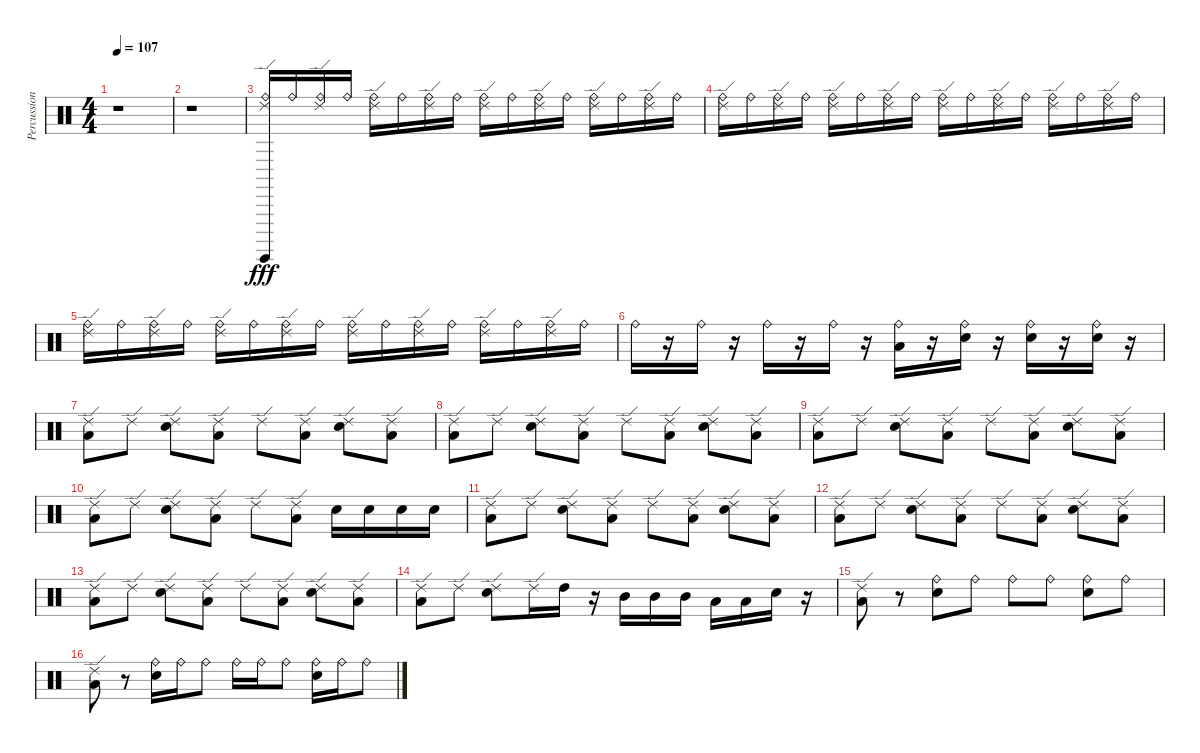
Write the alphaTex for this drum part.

\track ("Percussions" "Percussion") {instrument percussion}
\staff {score}
\articulation defaults
\ts (4 4)
\tempo 107
\clef neutral
\ks c
r.1{dy fff} |
r.1 |
("Surdo (hit)" "Ride (edge) 2" "Ride (bell)").16 "Ride (bell)".16 ("Ride (edge) 2" "Ride (bell)").16 "Ride (bell)".16 ("Ride (edge) 2" "Ride (bell)").16 "Ride (bell)".16 ("Ride (edge) 2" "Ride (bell)").16 "Ride (bell)".16 ("Ride (edge) 2" "Ride (bell)").16 "Ride (bell)".16 ("Ride (edge) 2" "Ride (bell)").16 "Ride (bell)".16 ("Ride (edge) 2" "Ride (bell)").16 "Ride (bell)".16 ("Ride (edge) 2" "Ride (bell)").16 "Ride (bell)".16 |
("Ride (edge) 2" "Ride (bell)").16 "Ride (bell)".16 ("Ride (edge) 2" "Ride (bell)").16 "Ride (bell)".16 ("Ride (edge) 2" "Ride (bell)").16 "Ride (bell)".16 ("Ride (edge) 2" "Ride (bell)").16 "Ride (bell)".16 ("Ride (edge) 2" "Ride (bell)").16 "Ride (bell)".16 ("Ride (edge) 2" "Ride (bell)").16 "Ride (bell)".16 ("Ride (edge) 2" "Ride (bell)").16 "Ride (bell)".16 ("Ride (edge) 2" "Ride (bell)").16 "Ride (bell)".16 |
("Ride (edge) 2" "Ride (bell)").16 "Ride (bell)".16 ("Ride (edge) 2" "Ride (bell)").16 "Ride (bell)".16 ("Ride (edge) 2" "Ride (bell)").16 "Ride (bell)".16 ("Ride (edge) 2" "Ride (bell)").16 "Ride (bell)".16 ("Ride (edge) 2" "Ride (bell)").16 "Ride (bell)".16 ("Ride (edge) 2" "Ride (bell)").16 "Ride (bell)".16 ("Ride (edge) 2" "Ride (bell)").16 "Ride (bell)".16 ("Ride (edge) 2" "Ride (bell)").16 "Ride (bell)".16 |
"Ride (bell)".16 r.16 "Ride (bell)".16 r.16 "Ride (bell)".16 r.16 "Ride (bell)".16 r.16 ("Low Floor Tom (hit)" "Ride (bell)").16 r.16 ("Electric Snare (hit)" "Ride (bell)").16 r.16 ("Electric Snare (hit)" "Ride (bell)").16 r.16 ("Electric Snare (hit)" "Ride (bell)").16 r.16 |
("Low Floor Tom (hit)" "Ride (edge) 2").8 "Ride (edge) 2".8 ("Electric Snare (hit)" "Ride (edge) 2").8 ("Low Floor Tom (hit)" "Ride (edge) 2").8 "Ride (edge) 2".8 ("Low Floor Tom (hit)" "Ride (edge) 2").8 ("Snare (hit) 2" "Ride (edge) 2").8 ("Low Floor Tom (hit)" "Ride (edge) 2").8 |
("Low Floor Tom (hit)" "Ride (edge) 2").8 "Ride (edge) 2".8 ("Electric Snare (hit)" "Ride (edge) 2").8 ("Low Floor Tom (hit)" "Ride (edge) 2").8 "Ride (edge) 2".8 ("Low Floor Tom (hit)" "Ride (edge) 2").8 ("Electric Snare (hit)" "Ride (edge) 2").8 ("Low Floor Tom (hit)" "Ride (edge) 2").8 |
("Low Floor Tom (hit)" "Ride (edge) 2").8 "Ride (edge) 2".8 ("Electric Snare (hit)" "Ride (edge) 2").8 ("Low Floor Tom (hit)" "Ride (edge) 2").8 "Ride (edge) 2".8 ("Low Floor Tom (hit)" "Ride (edge) 2").8 ("Electric Snare (hit)" "Ride (edge) 2").8 ("Low Floor Tom (hit)" "Ride (edge) 2").8 |
("Low Floor Tom (hit)" "Ride (edge) 2").8 "Ride (edge) 2".8 ("Electric Snare (hit)" "Ride (edge) 2").8 ("Low Floor Tom (hit)" "Ride (edge) 2").8 "Ride (edge) 2".8 ("Low Floor Tom (hit)" "Ride (edge) 2").8 "Electric Snare (hit)".16 "Electric Snare (hit)".16 "Electric Snare (hit)".16 "Electric Snare (hit)".16 |
("Low Floor Tom (hit)" "Ride (edge) 2").8 "Ride (edge) 2".8 ("Electric Snare (hit)" "Ride (edge) 2").8 ("Low Floor Tom (hit)" "Ride (edge) 2").8 "Ride (edge) 2".8 ("Low Floor Tom (hit)" "Ride (edge) 2").8 ("Electric Snare (hit)" "Ride (edge) 2").8 ("Low Floor Tom (hit)" "Ride (edge) 2").8 |
("Low Floor Tom (hit)" "Ride (edge) 2").8 "Ride (edge) 2".8 ("Electric Snare (hit)" "Ride (edge) 2").8 ("Low Floor Tom (hit)" "Ride (edge) 2").8 "Ride (edge) 2".8 ("Low Floor Tom (hit)" "Ride (edge) 2").8 ("Electric Snare (hit)" "Ride (edge) 2").8 ("Low Floor Tom (hit)" "Ride (edge) 2").8 |
("Low Floor Tom (hit)" "Ride (edge) 2").8 "Ride (edge) 2".8 ("Electric Snare (hit)" "Ride (edge) 2").8 ("Low Floor Tom (hit)" "Ride (edge) 2").8 "Ride (edge) 2".8 ("Low Floor Tom (hit)" "Ride (edge) 2").8 ("Electric Snare (hit)" "Ride (edge) 2").8 ("Low Floor Tom (hit)" "Ride (edge) 2").8 |
("Low Floor Tom (hit)" "Ride (edge) 2").8 "Ride (edge) 2".8 ("Electric Snare (hit)" "Ride (edge) 2").8 "Ride (edge) 2".16 "High Tom (hit)".16 r.16 "Mid Tom (hit)".16 "Mid Tom (hit)".16 "Mid Tom (hit)".16 "Low Tom (hit)".16 "Low Tom (hit)".16 "Electric Snare (hit)".16 r.16 |
("Low Floor Tom (hit)" "Ride (edge) 2").8 r.8 ("Electric Snare (hit)" "Ride (bell)").8 "Ride (bell)".8 "Ride (bell)".8 "Ride (bell)".8 ("Electric Snare (hit)" "Ride (bell)").8 "Ride (bell)".8 |
("Low Floor Tom (hit)" "Ride (edge) 2").8 r.8 ("Electric Snare (hit)" "Ride (bell)").16 "Ride (bell)".16 "Ride (bell)".8 "Ride (bell)".16 "Ride (bell)".16 "Ride (bell)".8 ("Electric Snare (hit)" "Ride (bell)").16 "Ride (bell)".16 "Ride (bell)".8
